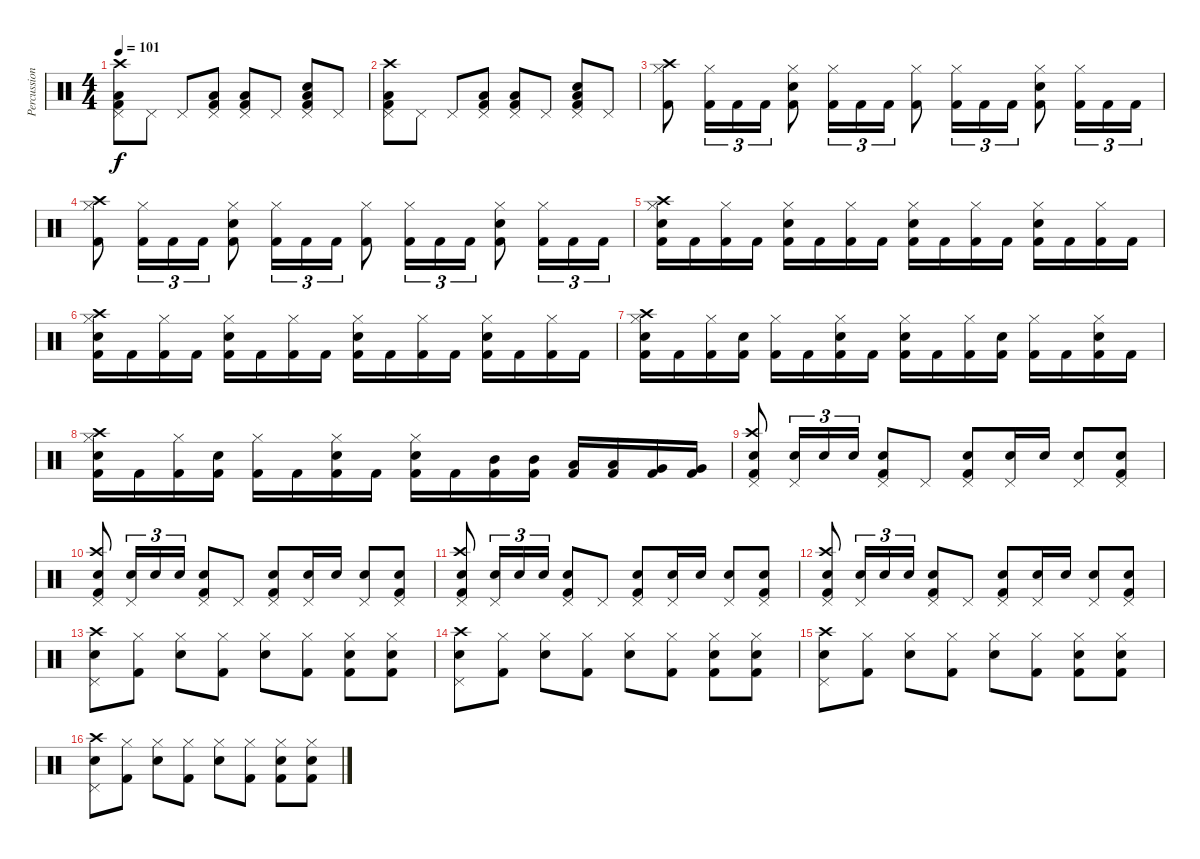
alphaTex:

\track ("Percussion" "Percussion") {instrument percussion}
\staff {score}
\articulation defaults
\ts (4 4)
\tempo 101
\clef neutral
\ks c
("Kick (hit) 2" "Low Floor Tom (hit)" "Pedal Hi-Hat (hit)" "Crash high (hit)").8{dy f} "Pedal Hi-Hat (hit)".8 "Pedal Hi-Hat (hit)".8 ("Kick (hit) 2" "Low Floor Tom (hit)" "Pedal Hi-Hat (hit)").8 ("Kick (hit) 2" "Low Floor Tom (hit)" "Pedal Hi-Hat (hit)").8 "Pedal Hi-Hat (hit)".8 ("Kick (hit) 2" "Snare (hit) 2" "Low Floor Tom (hit)" "Pedal Hi-Hat (hit)").8 "Pedal Hi-Hat (hit)".8 |
("Kick (hit) 2" "Low Floor Tom (hit)" "Pedal Hi-Hat (hit)" "Crash high (hit)").8 "Pedal Hi-Hat (hit)".8 "Pedal Hi-Hat (hit)".8 ("Kick (hit) 2" "Low Floor Tom (hit)" "Pedal Hi-Hat (hit)").8 ("Kick (hit) 2" "Low Floor Tom (hit)" "Pedal Hi-Hat (hit)").8 "Pedal Hi-Hat (hit)".8 ("Kick (hit) 2" "Snare (hit) 2" "Low Floor Tom (hit)" "Pedal Hi-Hat (hit)").8 "Pedal Hi-Hat (hit)".8 |
("Kick (hit) 2" "Hi-Hat (closed)" "Crash high (hit)").8 ("Kick (hit) 2" "Hi-Hat (closed)").16{tu (3 2)} "Kick (hit) 2".16{tu (3 2)} "Kick (hit) 2".16{tu (3 2)} ("Kick (hit) 2" "Snare (hit) 2" "Hi-Hat (closed)").8 ("Kick (hit) 2" "Hi-Hat (closed)").16{tu (3 2)} "Kick (hit) 2".16{tu (3 2)} "Kick (hit) 2".16{tu (3 2)} ("Kick (hit) 2" "Hi-Hat (closed)").8 ("Kick (hit) 2" "Hi-Hat (closed)").16{tu (3 2)} "Kick (hit) 2".16{tu (3 2)} "Kick (hit) 2".16{tu (3 2)} ("Kick (hit) 2" "Snare (hit) 2" "Hi-Hat (closed)").8 ("Kick (hit) 2" "Hi-Hat (closed)").16{tu (3 2)} "Kick (hit) 2".16{tu (3 2)} "Kick (hit) 2".16{tu (3 2)} |
("Kick (hit) 2" "Hi-Hat (closed)" "Crash high (hit)").8 ("Kick (hit) 2" "Hi-Hat (closed)").16{tu (3 2)} "Kick (hit) 2".16{tu (3 2)} "Kick (hit) 2".16{tu (3 2)} ("Kick (hit) 2" "Snare (hit) 2" "Hi-Hat (closed)").8 ("Kick (hit) 2" "Hi-Hat (closed)").16{tu (3 2)} "Kick (hit) 2".16{tu (3 2)} "Kick (hit) 2".16{tu (3 2)} ("Kick (hit) 2" "Hi-Hat (closed)").8 ("Kick (hit) 2" "Hi-Hat (closed)").16{tu (3 2)} "Kick (hit) 2".16{tu (3 2)} "Kick (hit) 2".16{tu (3 2)} ("Kick (hit) 2" "Snare (hit) 2" "Hi-Hat (closed)").8 ("Kick (hit) 2" "Hi-Hat (closed)").16{tu (3 2)} "Kick (hit) 2".16{tu (3 2)} "Kick (hit) 2".16{tu (3 2)} |
("Kick (hit) 2" "Snare (hit) 2" "Hi-Hat (closed)" "Crash high (hit)").16 "Kick (hit) 2".16 ("Kick (hit) 2" "Hi-Hat (closed)").16 "Kick (hit) 2".16 ("Kick (hit) 2" "Snare (hit) 2" "Hi-Hat (closed)").16 "Kick (hit) 2".16 ("Kick (hit) 2" "Hi-Hat (closed)").16 "Kick (hit) 2".16 ("Kick (hit) 2" "Snare (hit) 2" "Hi-Hat (closed)").16 "Kick (hit) 2".16 ("Kick (hit) 2" "Hi-Hat (closed)").16 "Kick (hit) 2".16 ("Kick (hit) 2" "Snare (hit) 2" "Hi-Hat (closed)").16 "Kick (hit) 2".16 ("Kick (hit) 2" "Hi-Hat (closed)").16 "Kick (hit) 2".16 |
("Kick (hit) 2" "Snare (hit) 2" "Hi-Hat (closed)" "Crash high (hit)").16 "Kick (hit) 2".16 ("Kick (hit) 2" "Hi-Hat (closed)").16 "Kick (hit) 2".16 ("Kick (hit) 2" "Snare (hit) 2" "Hi-Hat (closed)").16 "Kick (hit) 2".16 ("Kick (hit) 2" "Hi-Hat (closed)").16 "Kick (hit) 2".16 ("Kick (hit) 2" "Snare (hit) 2" "Hi-Hat (closed)").16 "Kick (hit) 2".16 ("Kick (hit) 2" "Hi-Hat (closed)").16 "Kick (hit) 2".16 ("Kick (hit) 2" "Snare (hit) 2" "Hi-Hat (closed)").16 "Kick (hit) 2".16 ("Kick (hit) 2" "Hi-Hat (closed)").16 "Kick (hit) 2".16 |
("Kick (hit) 2" "Snare (hit) 2" "Hi-Hat (closed)" "Crash high (hit)").16 "Kick (hit) 2".16 ("Kick (hit) 2" "Hi-Hat (closed)").16 ("Kick (hit) 2" "Snare (hit) 2").16 ("Kick (hit) 2" "Hi-Hat (closed)").16 "Kick (hit) 2".16 ("Kick (hit) 2" "Snare (hit) 2" "Hi-Hat (closed)").16 "Kick (hit) 2".16 ("Kick (hit) 2" "Snare (hit) 2" "Hi-Hat (closed)").16 "Kick (hit) 2".16 ("Kick (hit) 2" "Hi-Hat (closed)").16 ("Kick (hit) 2" "Snare (hit) 2").16 ("Kick (hit) 2" "Hi-Hat (closed)").16 "Kick (hit) 2".16 ("Kick (hit) 2" "Snare (hit) 2" "Hi-Hat (closed)").16 "Kick (hit) 2".16 |
("Kick (hit) 2" "Snare (hit) 2" "Hi-Hat (closed)" "Crash high (hit)").16 "Kick (hit) 2".16 ("Kick (hit) 2" "Hi-Hat (closed)").16 ("Kick (hit) 2" "Snare (hit) 2").16 ("Kick (hit) 2" "Hi-Hat (closed)").16 "Kick (hit) 2".16 ("Kick (hit) 2" "Snare (hit) 2" "Hi-Hat (closed)").16 "Kick (hit) 2".16 ("Kick (hit) 2" "Snare (hit) 2" "Hi-Hat (closed)").16 "Kick (hit) 2".16 ("Kick (hit) 2" "Mid Tom (hit)").16 ("Kick (hit) 2" "Mid Tom (hit)").16 ("Kick (hit) 2" "Low Tom (hit)").16 ("Kick (hit) 2" "Low Tom (hit)").16 ("Kick (hit) 2" "Very Low Tom (hit)").16 ("Kick (hit) 2" "Very Low Tom (hit)").16 |
("Kick (hit) 2" "Snare (hit) 2" "Pedal Hi-Hat (hit)" "Crash high (hit)").8 ("Snare (hit) 2" "Pedal Hi-Hat (hit)").16{tu (3 2)} "Snare (hit) 2".16{tu (3 2)} "Snare (hit) 2".16{tu (3 2)} ("Kick (hit) 2" "Snare (hit) 2" "Pedal Hi-Hat (hit)").8 "Pedal Hi-Hat (hit)".8 ("Kick (hit) 2" "Snare (hit) 2" "Pedal Hi-Hat (hit)").8 ("Snare (hit) 2" "Pedal Hi-Hat (hit)").16 "Snare (hit) 2".16 ("Snare (hit) 2" "Pedal Hi-Hat (hit)").8 ("Kick (hit) 2" "Snare (hit) 2" "Pedal Hi-Hat (hit)").8 |
("Kick (hit) 2" "Snare (hit) 2" "Pedal Hi-Hat (hit)" "Crash high (hit)").8 ("Snare (hit) 2" "Pedal Hi-Hat (hit)").16{tu (3 2)} "Snare (hit) 2".16{tu (3 2)} "Snare (hit) 2".16{tu (3 2)} ("Kick (hit) 2" "Snare (hit) 2" "Pedal Hi-Hat (hit)").8 "Pedal Hi-Hat (hit)".8 ("Kick (hit) 2" "Snare (hit) 2" "Pedal Hi-Hat (hit)").8 ("Snare (hit) 2" "Pedal Hi-Hat (hit)").16 "Snare (hit) 2".16 ("Snare (hit) 2" "Pedal Hi-Hat (hit)").8 ("Kick (hit) 2" "Snare (hit) 2" "Pedal Hi-Hat (hit)").8 |
("Kick (hit) 2" "Snare (hit) 2" "Pedal Hi-Hat (hit)" "Crash high (hit)").8 ("Snare (hit) 2" "Pedal Hi-Hat (hit)").16{tu (3 2)} "Snare (hit) 2".16{tu (3 2)} "Snare (hit) 2".16{tu (3 2)} ("Kick (hit) 2" "Snare (hit) 2" "Pedal Hi-Hat (hit)").8 "Pedal Hi-Hat (hit)".8 ("Kick (hit) 2" "Snare (hit) 2" "Pedal Hi-Hat (hit)").8 ("Snare (hit) 2" "Pedal Hi-Hat (hit)").16 "Snare (hit) 2".16 ("Snare (hit) 2" "Pedal Hi-Hat (hit)").8 ("Kick (hit) 2" "Snare (hit) 2" "Pedal Hi-Hat (hit)").8 |
("Kick (hit) 2" "Snare (hit) 2" "Pedal Hi-Hat (hit)" "Crash high (hit)").8 ("Snare (hit) 2" "Pedal Hi-Hat (hit)").16{tu (3 2)} "Snare (hit) 2".16{tu (3 2)} "Snare (hit) 2".16{tu (3 2)} ("Kick (hit) 2" "Snare (hit) 2" "Pedal Hi-Hat (hit)").8 "Pedal Hi-Hat (hit)".8 ("Kick (hit) 2" "Snare (hit) 2" "Pedal Hi-Hat (hit)").8 ("Snare (hit) 2" "Pedal Hi-Hat (hit)").16 "Snare (hit) 2".16 ("Snare (hit) 2" "Pedal Hi-Hat (hit)").8 ("Kick (hit) 2" "Snare (hit) 2" "Pedal Hi-Hat (hit)").8 |
("Snare (hit) 2" "Pedal Hi-Hat (hit)" "Crash high (hit)").8 ("Kick (hit) 2" "Hi-Hat (closed)").8 ("Snare (hit) 2" "Hi-Hat (closed)").8 ("Kick (hit) 2" "Hi-Hat (closed)").8 ("Snare (hit) 2" "Hi-Hat (closed)").8 ("Kick (hit) 2" "Hi-Hat (closed)").8 ("Kick (hit) 2" "Snare (hit) 2" "Hi-Hat (closed)").8 ("Kick (hit) 2" "Snare (hit) 2" "Hi-Hat (closed)").8 |
("Snare (hit) 2" "Pedal Hi-Hat (hit)" "Crash high (hit)").8 ("Kick (hit) 2" "Hi-Hat (closed)").8 ("Snare (hit) 2" "Hi-Hat (closed)").8 ("Kick (hit) 2" "Hi-Hat (closed)").8 ("Snare (hit) 2" "Hi-Hat (closed)").8 ("Kick (hit) 2" "Hi-Hat (closed)").8 ("Kick (hit) 2" "Snare (hit) 2" "Hi-Hat (closed)").8 ("Kick (hit) 2" "Snare (hit) 2" "Hi-Hat (closed)").8 |
("Snare (hit) 2" "Pedal Hi-Hat (hit)" "Crash high (hit)").8 ("Kick (hit) 2" "Hi-Hat (closed)").8 ("Snare (hit) 2" "Hi-Hat (closed)").8 ("Kick (hit) 2" "Hi-Hat (closed)").8 ("Snare (hit) 2" "Hi-Hat (closed)").8 ("Kick (hit) 2" "Hi-Hat (closed)").8 ("Kick (hit) 2" "Snare (hit) 2" "Hi-Hat (closed)").8 ("Kick (hit) 2" "Snare (hit) 2" "Hi-Hat (closed)").8 |
("Snare (hit) 2" "Pedal Hi-Hat (hit)" "Crash high (hit)").8 ("Kick (hit) 2" "Hi-Hat (closed)").8 ("Snare (hit) 2" "Hi-Hat (closed)").8 ("Kick (hit) 2" "Hi-Hat (closed)").8 ("Snare (hit) 2" "Hi-Hat (closed)").8 ("Kick (hit) 2" "Hi-Hat (closed)").8 ("Kick (hit) 2" "Snare (hit) 2" "Hi-Hat (closed)").8 ("Kick (hit) 2" "Snare (hit) 2" "Hi-Hat (closed)").8
